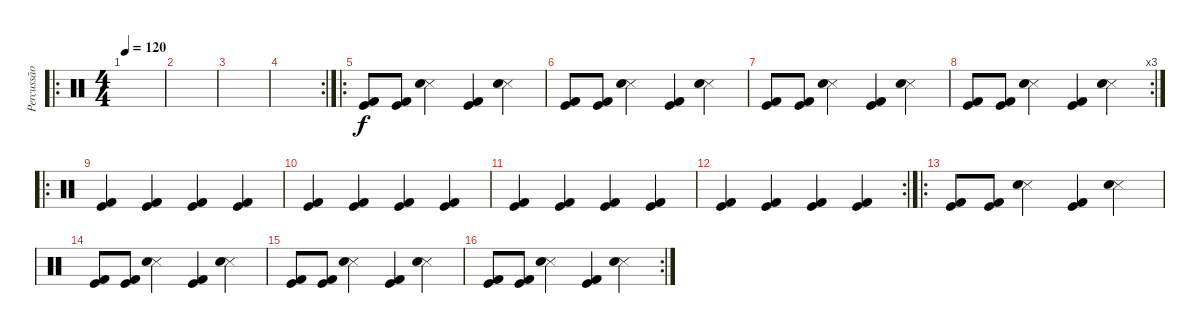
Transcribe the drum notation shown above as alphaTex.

\track ("Percussão" "Percussão") {instrument percussion}
\staff {score}
\articulation defaults
\ro
\ts (4 4)
\tempo 120
\clef neutral
\ks c
|
|
|
\rc 2
|
\ro
("Kick (hit)" "Kick (hit) 2").8 ("Kick (hit)" "Kick (hit) 2").8 ("Snare (side stick) 3" "Snare (hit) 2").4 ("Kick (hit)" "Kick (hit) 2").4 ("Snare (side stick) 3" "Snare (hit) 2").4 |
("Kick (hit)" "Kick (hit) 2").8 ("Kick (hit)" "Kick (hit) 2").8 ("Snare (side stick) 3" "Snare (hit) 2").4 ("Kick (hit)" "Kick (hit) 2").4 ("Snare (side stick) 3" "Snare (hit) 2").4 |
("Kick (hit)" "Kick (hit) 2").8 ("Kick (hit)" "Kick (hit) 2").8 ("Snare (side stick) 3" "Snare (hit) 2").4 ("Kick (hit)" "Kick (hit) 2").4 ("Snare (side stick) 3" "Snare (hit) 2").4 |
\rc 3
("Kick (hit)" "Kick (hit) 2").8 ("Kick (hit)" "Kick (hit) 2").8 ("Snare (side stick) 3" "Snare (hit) 2").4 ("Kick (hit)" "Kick (hit) 2").4 ("Snare (side stick) 3" "Snare (hit) 2").4 |
\ro
("Kick (hit) 2" "Kick (hit)").4 ("Kick (hit) 2" "Kick (hit)").4 ("Kick (hit) 2" "Kick (hit)").4 ("Kick (hit) 2" "Kick (hit)").4 |
("Kick (hit) 2" "Kick (hit)").4 ("Kick (hit) 2" "Kick (hit)").4 ("Kick (hit) 2" "Kick (hit)").4 ("Kick (hit) 2" "Kick (hit)").4 |
("Kick (hit)" "Kick (hit) 2").4 ("Kick (hit)" "Kick (hit) 2").4 ("Kick (hit)" "Kick (hit) 2").4 ("Kick (hit)" "Kick (hit) 2").4 |
\rc 2
("Kick (hit) 2" "Kick (hit)").4 ("Kick (hit) 2" "Kick (hit)").4 ("Kick (hit) 2" "Kick (hit)").4 ("Kick (hit) 2" "Kick (hit)").4 |
\ro
("Kick (hit)" "Kick (hit) 2").8 ("Kick (hit)" "Kick (hit) 2").8 ("Snare (side stick) 3" "Snare (hit) 2").4 ("Kick (hit)" "Kick (hit) 2").4 ("Snare (side stick) 3" "Snare (hit) 2").4 |
("Kick (hit)" "Kick (hit) 2").8 ("Kick (hit)" "Kick (hit) 2").8 ("Snare (side stick) 3" "Snare (hit) 2").4 ("Kick (hit)" "Kick (hit) 2").4 ("Snare (side stick) 3" "Snare (hit) 2").4 |
("Kick (hit)" "Kick (hit) 2").8 ("Kick (hit)" "Kick (hit) 2").8 ("Snare (side stick) 3" "Snare (hit) 2").4 ("Kick (hit)" "Kick (hit) 2").4 ("Snare (side stick) 3" "Snare (hit) 2").4 |
\rc 2
("Kick (hit)" "Kick (hit) 2").8 ("Kick (hit)" "Kick (hit) 2").8 ("Snare (side stick) 3" "Snare (hit) 2").4 ("Kick (hit)" "Kick (hit) 2").4 ("Snare (side stick) 3" "Snare (hit) 2").4
